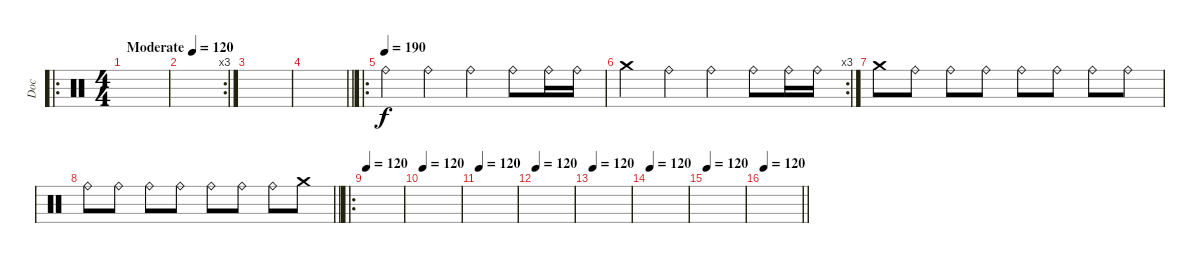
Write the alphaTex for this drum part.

\track ("Doc" "Doc") {instrument percussion}
\staff {score}
\articulation defaults
\ro
\ts (4 4)
\tempo (120 "Moderate")
\tempo 190
\tempo (120 "Moderate")
\clef neutral
\ks c
|
\rc 3
|
|
\barLineRight lightlight
|
\ro
\tempo (190)
"Ride (bell)".4 "Ride (bell)".4 "Ride (bell)".4 "Ride (bell)".8 "Ride (bell)".16 "Ride (bell)".16 |
\rc 3 "Crash medium (hit)".4 "Ride (bell)".4 "Ride (bell)".4 "Ride (bell)".8 "Ride (bell)".16 "Ride (bell)".16
|
"Crash medium (hit)".8 "Ride (bell)".8 "Ride (bell)".8 "Ride (bell)".8 "Ride (bell)".8 "Ride (bell)".8 "Ride (bell)".8 "Ride (bell)".8 |
\barLineRight lightlight "Ride (bell)".8 "Ride (bell)".8 "Ride (bell)".8 "Ride (bell)".8 "Ride (bell)".8 "Ride (bell)".8 "Ride (bell)".8 "Crash medium (hit)".8
|
\ro
\tempo 120
|
\tempo 120
|
\tempo 120
|
\tempo 120
|
\tempo 120
|
\tempo 120
|
\tempo 120
|
\tempo 120
\barLineRight lightlight
